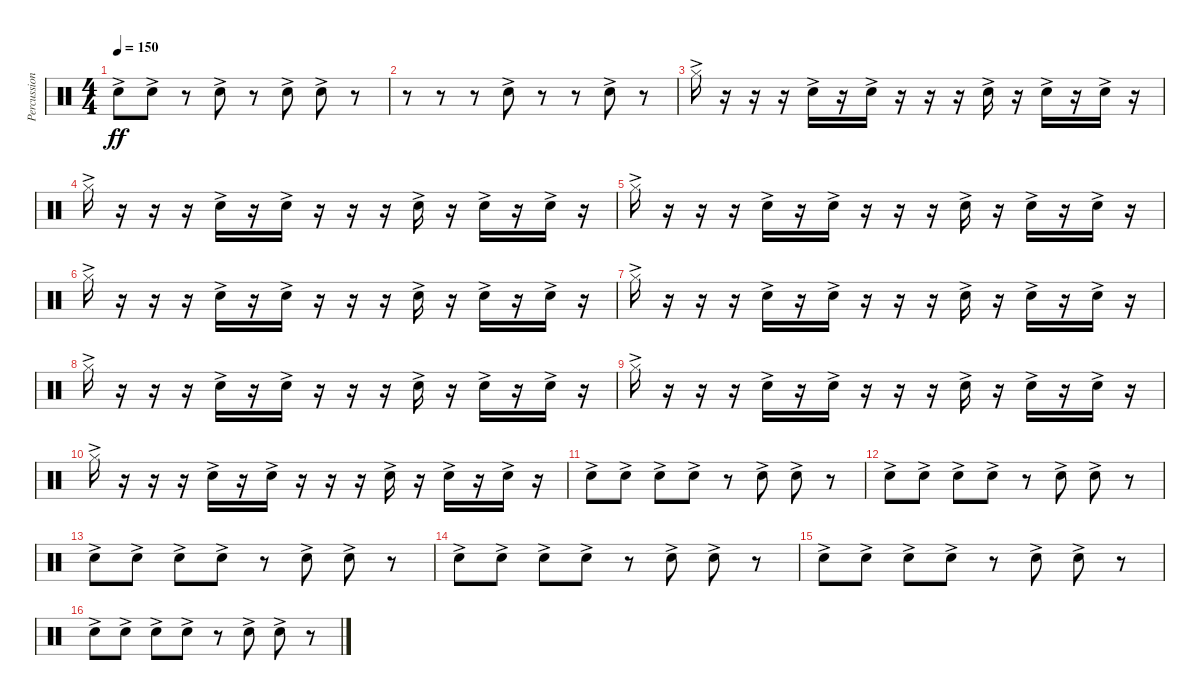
\track ("Percussion" "Percussion") {instrument percussion bank 1}
\staff {score}
\articulation defaults
\ts (4 4)
\tempo 150
\clef neutral
\ks c "Snare (hit) 2"{ac}.8{dy ff} "Snare (hit) 2"{ac}.8
r.8 "Snare (hit) 2"{ac}.8 r.8 "Snare (hit) 2"{ac}.8 "Snare (hit) 2"{ac}.8 r.8 |
r.8 r.8 r.8 "Snare (hit) 2"{ac}.8 r.8 r.8 "Snare (hit) 2"{ac}.8 r.8 |
"Hi-Hat (closed)"{ac}.16 r.16 r.16 r.16 "Snare (hit) 2"{ac}.16 r.16 "Snare (hit) 2"{ac}.16 r.16 r.16 r.16 "Snare (hit) 2"{ac}.16 r.16 "Snare (hit) 2"{ac}.16 r.16 "Snare (hit) 2"{ac}.16 r.16 |
"Hi-Hat (closed)"{ac}.16 r.16 r.16 r.16 "Snare (hit) 2"{ac}.16 r.16 "Snare (hit) 2"{ac}.16 r.16 r.16 r.16 "Snare (hit) 2"{ac}.16 r.16 "Snare (hit) 2"{ac}.16 r.16 "Snare (hit) 2"{ac}.16 r.16 |
"Hi-Hat (closed)"{ac}.16 r.16 r.16 r.16 "Snare (hit) 2"{ac}.16 r.16 "Snare (hit) 2"{ac}.16 r.16 r.16 r.16 "Snare (hit) 2"{ac}.16 r.16 "Snare (hit) 2"{ac}.16 r.16 "Snare (hit) 2"{ac}.16 r.16 |
"Hi-Hat (closed)"{ac}.16 r.16 r.16 r.16 "Snare (hit) 2"{ac}.16 r.16 "Snare (hit) 2"{ac}.16 r.16 r.16 r.16 "Snare (hit) 2"{ac}.16 r.16 "Snare (hit) 2"{ac}.16 r.16 "Snare (hit) 2"{ac}.16 r.16 |
"Hi-Hat (closed)"{ac}.16 r.16 r.16 r.16 "Snare (hit) 2"{ac}.16 r.16 "Snare (hit) 2"{ac}.16 r.16 r.16 r.16 "Snare (hit) 2"{ac}.16 r.16 "Snare (hit) 2"{ac}.16 r.16 "Snare (hit) 2"{ac}.16 r.16 |
"Hi-Hat (closed)"{ac}.16 r.16 r.16 r.16 "Snare (hit) 2"{ac}.16 r.16 "Snare (hit) 2"{ac}.16 r.16 r.16 r.16 "Snare (hit) 2"{ac}.16 r.16 "Snare (hit) 2"{ac}.16 r.16 "Snare (hit) 2"{ac}.16 r.16 |
"Hi-Hat (closed)"{ac}.16 r.16 r.16 r.16 "Snare (hit) 2"{ac}.16 r.16 "Snare (hit) 2"{ac}.16 r.16 r.16 r.16 "Snare (hit) 2"{ac}.16 r.16 "Snare (hit) 2"{ac}.16 r.16 "Snare (hit) 2"{ac}.16 r.16 |
"Hi-Hat (closed)"{ac}.16 r.16 r.16 r.16 "Snare (hit) 2"{ac}.16 r.16 "Snare (hit) 2"{ac}.16 r.16 r.16 r.16 "Snare (hit) 2"{ac}.16 r.16 "Snare (hit) 2"{ac}.16 r.16 "Snare (hit) 2"{ac}.16 r.16 |
"Snare (hit) 2"{ac}.8 "Snare (hit) 2"{ac}.8 "Snare (hit) 2"{ac}.8 "Snare (hit) 2"{ac}.8 r.8 "Snare (hit) 2"{ac}.8 "Snare (hit) 2"{ac}.8 r.8 |
"Snare (hit) 2"{ac}.8 "Snare (hit) 2"{ac}.8 "Snare (hit) 2"{ac}.8 "Snare (hit) 2"{ac}.8 r.8 "Snare (hit) 2"{ac}.8 "Snare (hit) 2"{ac}.8 r.8 |
"Snare (hit) 2"{ac}.8 "Snare (hit) 2"{ac}.8 "Snare (hit) 2"{ac}.8 "Snare (hit) 2"{ac}.8 r.8 "Snare (hit) 2"{ac}.8 "Snare (hit) 2"{ac}.8 r.8 |
"Snare (hit) 2"{ac}.8 "Snare (hit) 2"{ac}.8 "Snare (hit) 2"{ac}.8 "Snare (hit) 2"{ac}.8 r.8 "Snare (hit) 2"{ac}.8 "Snare (hit) 2"{ac}.8 r.8 |
"Snare (hit) 2"{ac}.8 "Snare (hit) 2"{ac}.8 "Snare (hit) 2"{ac}.8 "Snare (hit) 2"{ac}.8 r.8 "Snare (hit) 2"{ac}.8 "Snare (hit) 2"{ac}.8 r.8 |
"Snare (hit) 2"{ac}.8 "Snare (hit) 2"{ac}.8 "Snare (hit) 2"{ac}.8 "Snare (hit) 2"{ac}.8 r.8 "Snare (hit) 2"{ac}.8 "Snare (hit) 2"{ac}.8 r.8
